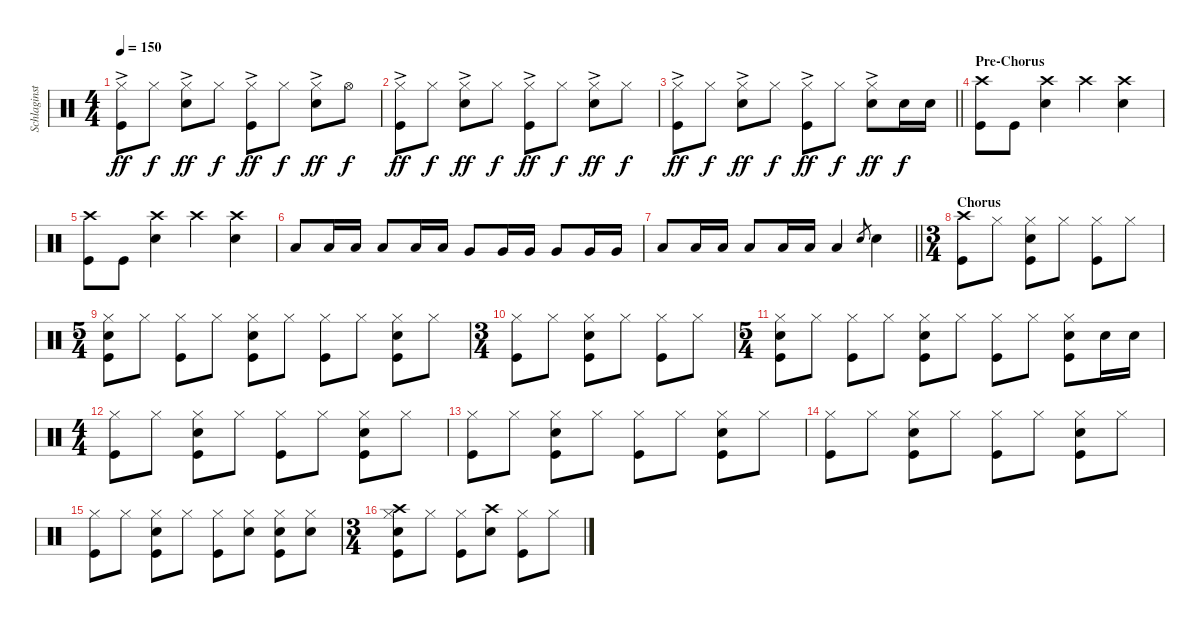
\track ("Schlaginstrumente - Auswahl" "Schlaginst") {instrument percussion}
\staff {score}
\articulation defaults
\ts (4 4)
\tempo 150
\clef neutral
\ks c
("Hi-Hat (closed)"{ac} "Kick (hit)").8{dy ff} "Hi-Hat (closed)".8{dy f} ("Hi-Hat (closed)"{ac} "Snare (hit) 2").8{dy ff} "Hi-Hat (closed)".8{dy f} ("Hi-Hat (closed)"{ac} "Kick (hit)").8{dy ff} "Hi-Hat (closed)".8{dy f} ("Hi-Hat (closed)"{ac} "Snare (hit) 2").8{dy ff} "Hi-Hat (open)".8{dy f} |
("Hi-Hat (closed)"{ac} "Kick (hit)").8{dy ff} "Hi-Hat (closed)".8{dy f} ("Hi-Hat (closed)"{ac} "Snare (hit) 2").8{dy ff} "Hi-Hat (closed)".8{dy f} ("Hi-Hat (closed)"{ac} "Kick (hit)").8{dy ff} "Hi-Hat (closed)".8{dy f} ("Hi-Hat (closed)"{ac} "Snare (hit) 2").8{dy ff} "Hi-Hat (closed)".8{dy f} |
\barLineRight lightlight
("Hi-Hat (closed)"{ac} "Kick (hit)").8{dy ff} "Hi-Hat (closed)".8{dy f} ("Hi-Hat (closed)"{ac} "Snare (hit) 2").8{dy ff} "Hi-Hat (closed)".8{dy f} ("Hi-Hat (closed)"{ac} "Kick (hit)").8{dy ff} "Hi-Hat (closed)".8{dy f} ("Hi-Hat (closed)"{ac} "Snare (hit) 2").8{dy ff} "Snare (hit) 2".16{dy f} "Snare (hit) 2".16 |
\section ("" "Pre-Chorus")
("Kick (hit)" "Crash high (hit)").8 "Kick (hit)".8 ("Snare (hit) 2" "Crash high (hit)").4 "Crash high (hit)".4 ("Crash high (hit)" "Snare (hit) 2").4 |
("Kick (hit)" "Crash high (hit)").8 "Kick (hit)".8 ("Snare (hit) 2" "Crash high (hit)").4 "Crash high (hit)".4 ("Crash high (hit)" "Snare (hit) 2").4 |
"Low Tom (hit)".8 "Low Tom (hit)".16 "Low Tom (hit)".16 "Low Tom (hit)".8 "Low Tom (hit)".16 "Low Tom (hit)".16 "Very Low Tom (hit)".8 "Very Low Tom (hit)".16 "Very Low Tom (hit)".16 "Very Low Tom (hit)".8 "Very Low Tom (hit)".16 "Very Low Tom (hit)".16 |
\barLineRight lightlight "Low Floor Tom (hit)".8 "Low Floor Tom (hit)".16 "Low Floor Tom (hit)".16 "Low Floor Tom (hit)".8 "Low Floor Tom (hit)".16 "Low Floor Tom (hit)".16 "Low Floor Tom (hit)".4 "Snare (hit) 2".8{gr} "Snare (hit) 2".4
|
\ts (3 4)
\section ("" "Chorus")
("Kick (hit)" "Crash high (hit)").8 "Hi-Hat (closed)".8 ("Hi-Hat (closed)" "Snare (hit) 2" "Kick (hit)").8 "Hi-Hat (closed)".8 ("Hi-Hat (closed)" "Kick (hit)").8 "Hi-Hat (closed)".8 |
\ts (5 4)
("Hi-Hat (closed)" "Snare (hit) 2" "Kick (hit)").8 "Hi-Hat (closed)".8 ("Hi-Hat (closed)" "Kick (hit)").8 "Hi-Hat (closed)".8 ("Hi-Hat (closed)" "Snare (hit) 2" "Kick (hit)").8 "Hi-Hat (closed)".8 ("Hi-Hat (closed)" "Kick (hit)").8 "Hi-Hat (closed)".8 ("Hi-Hat (closed)" "Snare (hit) 2" "Kick (hit)").8 "Hi-Hat (closed)".8 |
\ts (3 4)
("Kick (hit)" "Hi-Hat (closed)").8 "Hi-Hat (closed)".8 ("Hi-Hat (closed)" "Snare (hit) 2" "Kick (hit)").8 "Hi-Hat (closed)".8 ("Hi-Hat (closed)" "Kick (hit)").8 "Hi-Hat (closed)".8 |
\ts (5 4)
("Hi-Hat (closed)" "Snare (hit) 2" "Kick (hit)").8 "Hi-Hat (closed)".8 ("Hi-Hat (closed)" "Kick (hit)").8 "Hi-Hat (closed)".8 ("Hi-Hat (closed)" "Snare (hit) 2" "Kick (hit)").8 "Hi-Hat (closed)".8 ("Hi-Hat (closed)" "Kick (hit)").8 "Hi-Hat (closed)".8 ("Hi-Hat (closed)" "Snare (hit) 2" "Kick (hit)").8 "Snare (hit) 2".16 "Snare (hit) 2".16 |
\ts (4 4)
("Kick (hit)" "Hi-Hat (closed)").8 "Hi-Hat (closed)".8 ("Hi-Hat (closed)" "Snare (hit) 2" "Kick (hit)").8 "Hi-Hat (closed)".8 ("Hi-Hat (closed)" "Kick (hit)").8 "Hi-Hat (closed)".8 ("Hi-Hat (closed)" "Snare (hit) 2" "Kick (hit)").8 "Hi-Hat (closed)".8 |
("Kick (hit)" "Hi-Hat (closed)").8 "Hi-Hat (closed)".8 ("Hi-Hat (closed)" "Snare (hit) 2" "Kick (hit)").8 "Hi-Hat (closed)".8 ("Hi-Hat (closed)" "Kick (hit)").8 "Hi-Hat (closed)".8 ("Hi-Hat (closed)" "Snare (hit) 2" "Kick (hit)").8 "Hi-Hat (closed)".8 |
("Kick (hit)" "Hi-Hat (closed)").8 "Hi-Hat (closed)".8 ("Hi-Hat (closed)" "Snare (hit) 2" "Kick (hit)").8 "Hi-Hat (closed)".8 ("Hi-Hat (closed)" "Kick (hit)").8 "Hi-Hat (closed)".8 ("Hi-Hat (closed)" "Snare (hit) 2" "Kick (hit)").8 "Hi-Hat (closed)".8 |
("Kick (hit)" "Hi-Hat (closed)").8 "Hi-Hat (closed)".8 ("Hi-Hat (closed)" "Snare (hit) 2" "Kick (hit)").8 "Hi-Hat (closed)".8 ("Hi-Hat (closed)" "Kick (hit)").8 ("Hi-Hat (closed)" "Snare (hit) 2").8 ("Hi-Hat (closed)" "Snare (hit) 2" "Kick (hit)").8 ("Hi-Hat (closed)" "Snare (hit) 2").8 |
\ts (3 4)
("Kick (hit)" "Hi-Hat (closed)" "Crash high (hit)" "Snare (hit) 2").8 "Hi-Hat (closed)".8 ("Hi-Hat (closed)" "Kick (hit)").8 ("Crash high (hit)" "Snare (hit) 2").8 ("Hi-Hat (closed)" "Kick (hit)").8 "Hi-Hat (closed)".8
